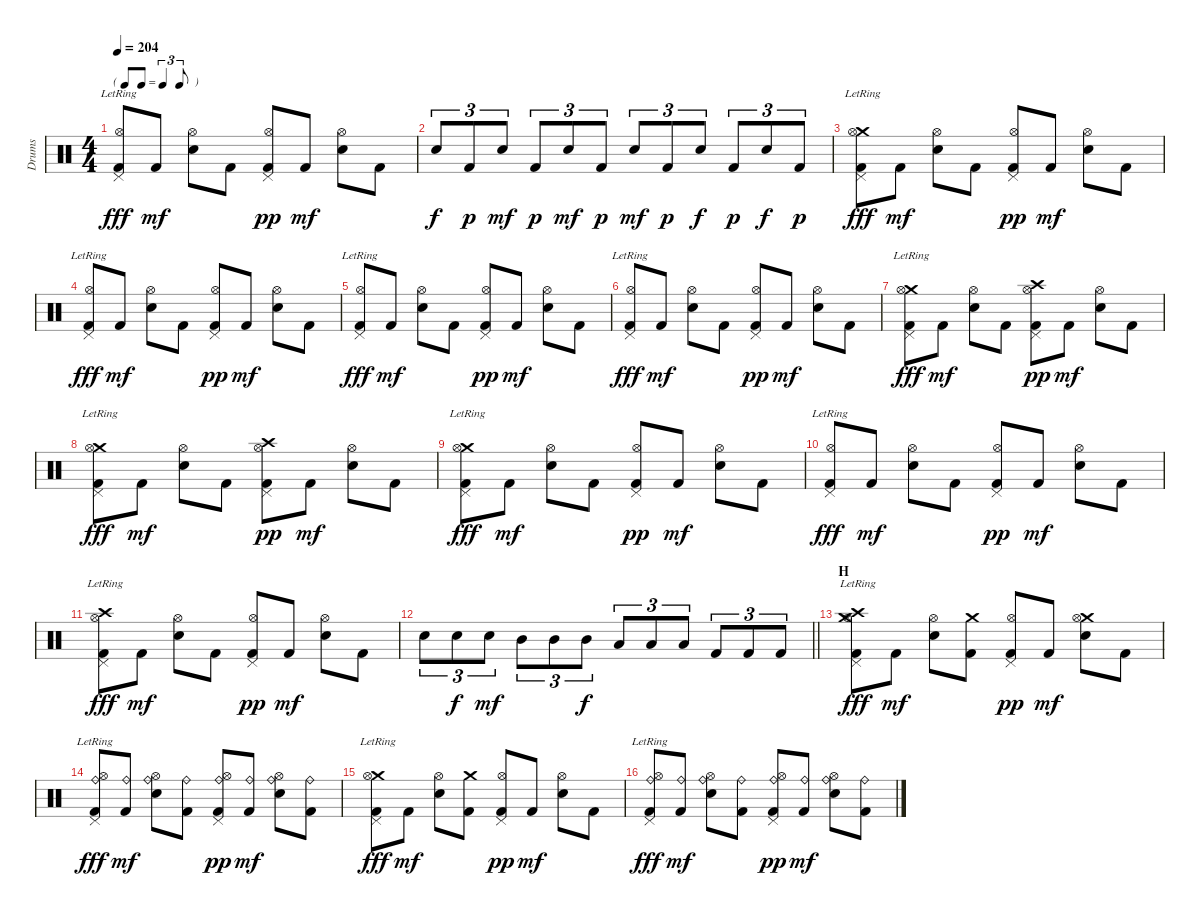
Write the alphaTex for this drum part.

\track ("Drums" "Drums") {instrument percussion}
\staff {score}
\articulation defaults
\ts (4 4)
\tf triplet8th
\tempo 204
\clef neutral
\ks c
("Pedal Hi-Hat (hit)" "Hi-Hat (open)" "Kick (hit) 2"{lr}).8{dy fff} "Kick (hit) 2".8{dy mf} ("Hi-Hat (open)" "Electric Snare (hit)").8 "Kick (hit) 2".8 ("Pedal Hi-Hat (hit)" "Hi-Hat (open)" "Kick (hit) 2").8{dy pp} "Kick (hit) 2".8{dy mf} ("Hi-Hat (open)" "Electric Snare (hit)").8 "Kick (hit) 2".8 |
"Electric Snare (hit)".8{tu (3 2) dy f} "Kick (hit) 2".8{tu (3 2) dy p} "Electric Snare (hit)".8{tu (3 2) dy mf} "Kick (hit) 2".8{tu (3 2) dy p} "Electric Snare (hit)".8{tu (3 2) dy mf} "Kick (hit) 2".8{tu (3 2) dy p} "Electric Snare (hit)".8{tu (3 2) dy mf} "Kick (hit) 2".8{tu (3 2) dy p} "Electric Snare (hit)".8{tu (3 2) dy f} "Kick (hit) 2".8{tu (3 2) dy p} "Electric Snare (hit)".8{tu (3 2) dy f} "Kick (hit) 2".8{tu (3 2) dy p} |
("Crash medium (hit)" "Pedal Hi-Hat (hit)" "Hi-Hat (open)" "Kick (hit) 2"{lr}).8{dy fff} "Kick (hit) 2".8{dy mf} ("Hi-Hat (open)" "Electric Snare (hit)").8 "Kick (hit) 2".8 ("Pedal Hi-Hat (hit)" "Hi-Hat (open)" "Kick (hit) 2").8{dy pp} "Kick (hit) 2".8{dy mf} ("Hi-Hat (open)" "Electric Snare (hit)").8 "Kick (hit) 2".8 |
("Pedal Hi-Hat (hit)" "Hi-Hat (open)" "Kick (hit) 2"{lr}).8{dy fff} "Kick (hit) 2".8{dy mf} ("Hi-Hat (open)" "Electric Snare (hit)").8 "Kick (hit) 2".8 ("Pedal Hi-Hat (hit)" "Hi-Hat (open)" "Kick (hit) 2").8{dy pp} "Kick (hit) 2".8{dy mf} ("Hi-Hat (open)" "Electric Snare (hit)").8 "Kick (hit) 2".8 |
("Pedal Hi-Hat (hit)" "Hi-Hat (open)" "Kick (hit) 2"{lr}).8{dy fff} "Kick (hit) 2".8{dy mf} ("Hi-Hat (open)" "Electric Snare (hit)").8 "Kick (hit) 2".8 ("Pedal Hi-Hat (hit)" "Hi-Hat (open)" "Kick (hit) 2").8{dy pp} "Kick (hit) 2".8{dy mf} ("Hi-Hat (open)" "Electric Snare (hit)").8 "Kick (hit) 2".8 |
("Pedal Hi-Hat (hit)" "Hi-Hat (open)" "Kick (hit) 2"{lr}).8{dy fff} "Kick (hit) 2".8{dy mf} ("Hi-Hat (open)" "Electric Snare (hit)").8 "Kick (hit) 2".8 ("Pedal Hi-Hat (hit)" "Hi-Hat (open)" "Kick (hit) 2").8{dy pp} "Kick (hit) 2".8{dy mf} ("Hi-Hat (open)" "Electric Snare (hit)").8 "Kick (hit) 2".8 |
("Crash medium (hit)" "Pedal Hi-Hat (hit)" "Hi-Hat (open)" "Kick (hit) 2"{lr}).8{dy fff} "Kick (hit) 2".8{dy mf} ("Hi-Hat (open)" "Electric Snare (hit)").8 "Kick (hit) 2".8 ("Crash high (hit)" "Pedal Hi-Hat (hit)" "Hi-Hat (open)" "Kick (hit) 2").8{dy pp} "Kick (hit) 2".8{dy mf} ("Hi-Hat (open)" "Electric Snare (hit)").8 "Kick (hit) 2".8 |
("Crash medium (hit)" "Pedal Hi-Hat (hit)" "Hi-Hat (open)" "Kick (hit) 2"{lr}).8{dy fff} "Kick (hit) 2".8{dy mf} ("Hi-Hat (open)" "Electric Snare (hit)").8 "Kick (hit) 2".8 ("Crash high (hit)" "Pedal Hi-Hat (hit)" "Hi-Hat (open)" "Kick (hit) 2").8{dy pp} "Kick (hit) 2".8{dy mf} ("Hi-Hat (open)" "Electric Snare (hit)").8 "Kick (hit) 2".8 |
("Crash medium (hit)" "Pedal Hi-Hat (hit)" "Hi-Hat (open)" "Kick (hit) 2"{lr}).8{dy fff} "Kick (hit) 2".8{dy mf} ("Hi-Hat (open)" "Electric Snare (hit)").8 "Kick (hit) 2".8 ("Pedal Hi-Hat (hit)" "Hi-Hat (open)" "Kick (hit) 2").8{dy pp} "Kick (hit) 2".8{dy mf} ("Hi-Hat (open)" "Electric Snare (hit)").8 "Kick (hit) 2".8 |
("Pedal Hi-Hat (hit)" "Hi-Hat (open)" "Kick (hit) 2"{lr}).8{dy fff} "Kick (hit) 2".8{dy mf} ("Hi-Hat (open)" "Electric Snare (hit)").8 "Kick (hit) 2".8 ("Pedal Hi-Hat (hit)" "Hi-Hat (open)" "Kick (hit) 2").8{dy pp} "Kick (hit) 2".8{dy mf} ("Hi-Hat (open)" "Electric Snare (hit)").8 "Kick (hit) 2".8 |
("Crash high (hit)" "Pedal Hi-Hat (hit)" "Hi-Hat (open)" "Kick (hit) 2"{lr}).8{dy fff} "Kick (hit) 2".8{dy mf} ("Hi-Hat (open)" "Electric Snare (hit)").8 "Kick (hit) 2".8 ("Pedal Hi-Hat (hit)" "Hi-Hat (open)" "Kick (hit) 2").8{dy pp} "Kick (hit) 2".8{dy mf} ("Hi-Hat (open)" "Electric Snare (hit)").8 "Kick (hit) 2".8 |
\barLineRight lightlight "Electric Snare (hit)".8{tu (3 2)} "Electric Snare (hit)".8{tu (3 2) dy f} "Electric Snare (hit)".8{tu (3 2) dy mf} "Mid Tom (hit)".8{tu (3 2)} "Mid Tom (hit)".8{tu (3 2)} "Mid Tom (hit)".8{tu (3 2) dy f} "Low Tom (hit)".8{tu (3 2)} "Low Tom (hit)".8{tu (3 2)} "Low Tom (hit)".8{tu (3 2)} "Kick (hit) 2".8{tu (3 2)} "Kick (hit) 2".8{tu (3 2)} "Kick (hit) 2".8{tu (3 2)}
|
\section ("" "H")
("Crash high (hit)" "Crash medium (hit)" "Pedal Hi-Hat (hit)" "Hi-Hat (open)" "Kick (hit) 2"{lr}).8{dy fff} "Kick (hit) 2".8{dy mf} ("Hi-Hat (open)" "Electric Snare (hit)").8 ("Crash medium (hit)" "Kick (hit) 2").8 ("Pedal Hi-Hat (hit)" "Hi-Hat (open)" "Kick (hit) 2").8{dy pp} "Kick (hit) 2".8{dy mf} ("Crash medium (hit)" "Hi-Hat (open)" "Electric Snare (hit)").8 "Kick (hit) 2".8 |
("Ride (bell)" "Pedal Hi-Hat (hit)" "Hi-Hat (open)" "Kick (hit) 2"{lr}).8{dy fff} ("Ride (bell)" "Kick (hit) 2").8{dy mf} ("Ride (bell)" "Hi-Hat (open)" "Electric Snare (hit)").8 ("Ride (bell)" "Kick (hit) 2").8 ("Ride (bell)" "Pedal Hi-Hat (hit)" "Hi-Hat (open)" "Kick (hit) 2").8{dy pp} ("Ride (bell)" "Kick (hit) 2").8{dy mf} ("Ride (bell)" "Hi-Hat (open)" "Electric Snare (hit)").8 ("Ride (bell)" "Kick (hit) 2").8 |
("Crash medium (hit)" "Pedal Hi-Hat (hit)" "Hi-Hat (open)" "Kick (hit) 2"{lr}).8{dy fff} "Kick (hit) 2".8{dy mf} ("Hi-Hat (open)" "Electric Snare (hit)").8 ("Crash medium (hit)" "Kick (hit) 2").8 ("Pedal Hi-Hat (hit)" "Hi-Hat (open)" "Kick (hit) 2").8{dy pp} "Kick (hit) 2".8{dy mf} ("Hi-Hat (open)" "Electric Snare (hit)").8 "Kick (hit) 2".8 |
("Ride (bell)" "Pedal Hi-Hat (hit)" "Hi-Hat (open)" "Kick (hit) 2"{lr}).8{dy fff} ("Ride (bell)" "Kick (hit) 2").8{dy mf} ("Ride (bell)" "Hi-Hat (open)" "Electric Snare (hit)").8 ("Ride (bell)" "Kick (hit) 2").8 ("Ride (bell)" "Pedal Hi-Hat (hit)" "Hi-Hat (open)" "Kick (hit) 2").8{dy pp} ("Ride (bell)" "Kick (hit) 2").8{dy mf} ("Ride (bell)" "Hi-Hat (open)" "Electric Snare (hit)").8 ("Ride (bell)" "Kick (hit) 2").8
